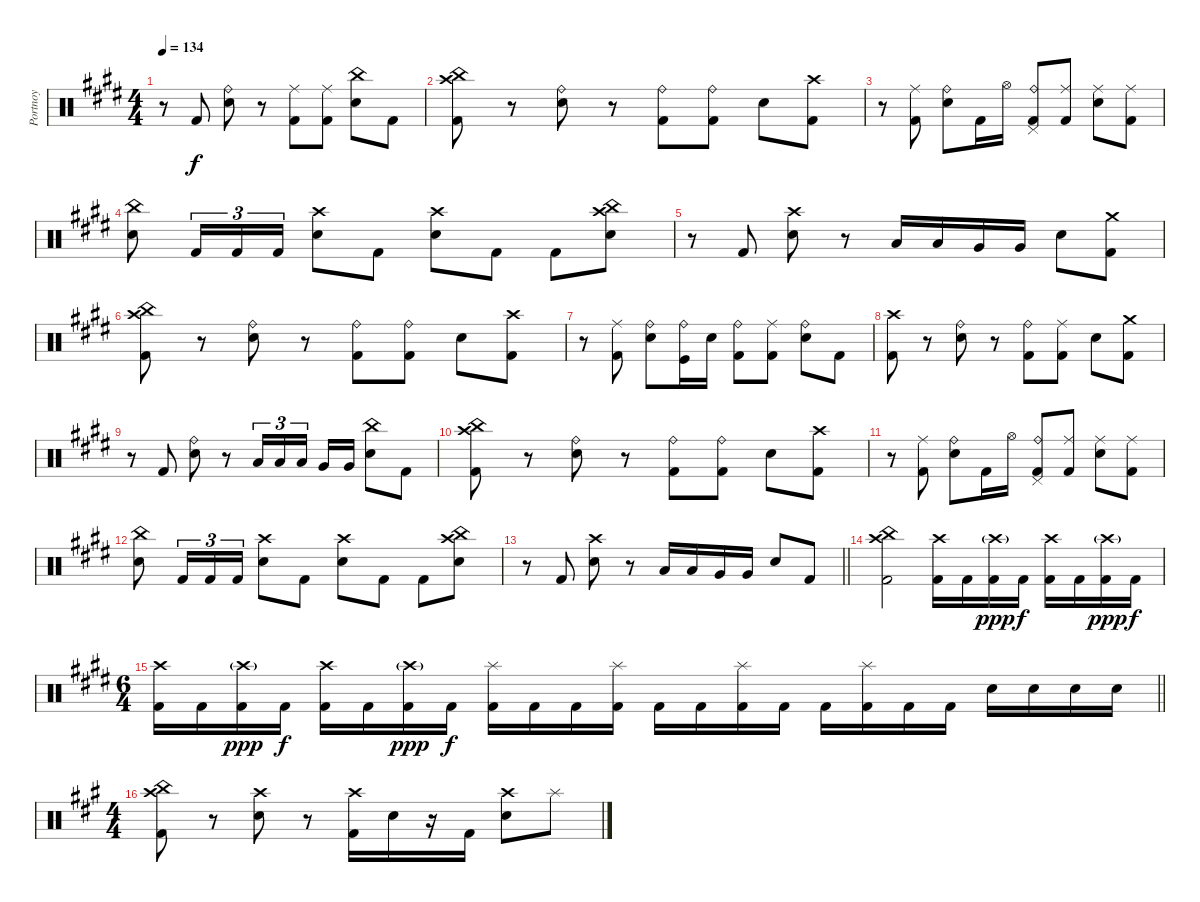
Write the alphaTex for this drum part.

\track ("Portnoy" "Portnoy") {instrument percussion}
\staff {score}
\articulation defaults
\ts (4 4)
\tempo 134
\clef neutral
\ks c#minor
r.8{dy f} "Kick (hit) 2".8 ("Snare (hit) 2" "Ride (bell)").8 r.8 ("Kick (hit) 2" "Ride (middle)").8 ("Kick (hit) 2" "Ride (middle)").8 ("Snare (hit) 2" "China (hit)").8 "Kick (hit) 2".8 |
("Kick (hit) 2" "Crash high (hit)" "China (hit)").8 r.8 ("Snare (hit) 2" "Ride (bell)").8 r.8 ("Kick (hit) 2" "Ride (bell)").8 ("Kick (hit) 2" "Ride (bell)").8 "Snare (hit) 2".8 ("Kick (hit) 2" "Crash high (hit)").8 |
r.8 ("Kick (hit) 2" "Ride (middle)").8 ("Snare (hit) 2" "Ride (bell)").8 "Kick (hit) 2".16 "Hi-Hat (open)".16 ("Kick (hit) 2" "Ride (bell)" "Pedal Hi-Hat (hit)").8 ("Kick (hit) 2" "Ride (middle)").8 ("Snare (hit) 2" "Ride (middle)").8 ("Kick (hit) 2" "Ride (middle)").8 |
("Snare (hit) 2" "China (hit)").8 "Kick (hit) 2".16{tu (3 2)} "Kick (hit) 2".16{tu (3 2)} "Kick (hit) 2".16{tu (3 2)} ("Snare (hit) 2" "Crash high (hit)").8 "Kick (hit) 2".8 ("Snare (hit) 2" "Crash high (hit)").8 "Kick (hit) 2".8 "Kick (hit) 2".8 ("Snare (hit) 2" "Crash high (hit)" "China (hit)").8 |
r.8 "Kick (hit) 2".8 ("Snare (hit) 2" "Crash high (hit)").8 r.8 "Low Tom (hit)".16 "Low Tom (hit)".16 "Very Low Tom (hit)".16 "Very Low Tom (hit)".16 "Snare (hit) 2".8 ("Kick (hit) 2" "Crash medium (hit)").8 |
("Kick (hit) 2" "Crash high (hit)" "China (hit)").8 r.8 ("Snare (hit) 2" "Ride (bell)").8 r.8 ("Kick (hit) 2" "Ride (bell)").8 ("Kick (hit) 2" "Ride (bell)").8 "Snare (hit) 2".8 ("Kick (hit) 2" "Crash high (hit)").8 |
r.8 ("Kick (hit) 2" "Ride (middle)").8 ("Snare (hit) 2" "Ride (bell)").8 ("Kick (hit)" "Ride (bell)").16 "Electric Snare (hit)".16 ("Kick (hit) 2" "Ride (bell)").8 ("Kick (hit) 2" "Ride (middle)").8 ("Snare (hit) 2" "Ride (bell)").8 "Kick (hit) 2".8 |
("Kick (hit) 2" "Crash high (hit)").8 r.8 ("Snare (hit) 2" "Ride (bell)").8 r.8 ("Kick (hit) 2" "Ride (bell)").8 ("Kick (hit) 2" "Ride (middle)").8 "Snare (hit) 2".8 ("Kick (hit) 2" "Crash medium (hit)").8 |
r.8 "Kick (hit) 2".8 ("Snare (hit) 2" "Ride (bell)").8 r.8 "Low Tom (hit)".16{tu (3 2)} "Low Tom (hit)".16{tu (3 2)} "Low Tom (hit)".16{tu (3 2) beam splitsecondary} "Very Low Tom (hit)".16 "Very Low Tom (hit)".16 ("Snare (hit) 2" "China (hit)").8 "Kick (hit) 2".8 |
("Kick (hit) 2" "Crash high (hit)" "China (hit)").8 r.8 ("Snare (hit) 2" "Ride (bell)").8 r.8 ("Kick (hit) 2" "Ride (bell)").8 ("Kick (hit) 2" "Ride (bell)").8 "Snare (hit) 2".8 ("Kick (hit) 2" "Crash high (hit)").8 |
r.8 ("Kick (hit) 2" "Ride (middle)").8 ("Snare (hit) 2" "Ride (bell)").8 "Kick (hit) 2".16 "Hi-Hat (open)".16 ("Kick (hit) 2" "Ride (bell)" "Pedal Hi-Hat (hit)").8 ("Kick (hit) 2" "Ride (middle)").8 ("Snare (hit) 2" "Ride (middle)").8 ("Kick (hit) 2" "Ride (middle)").8 |
("Snare (hit) 2" "China (hit)").8 "Kick (hit) 2".16{tu (3 2)} "Kick (hit) 2".16{tu (3 2)} "Kick (hit) 2".16{tu (3 2)} ("Snare (hit) 2" "Crash high (hit)").8 "Kick (hit) 2".8 ("Snare (hit) 2" "Crash high (hit)").8 "Kick (hit) 2".8 "Kick (hit) 2".8 ("Snare (hit) 2" "Crash high (hit)" "China (hit)").8 |
\barLineRight lightlight
r.8 "Kick (hit) 2".8 ("Snare (hit) 2" "Crash high (hit)").8 r.8 "Low Tom (hit)".16 "Low Tom (hit)".16 "Very Low Tom (hit)".16 "Very Low Tom (hit)".16 "Snare (hit) 2".8 "Kick (hit) 2".8 |
("Crash high (hit)" "Kick (hit) 2" "China (hit)").2 ("Kick (hit) 2" "Crash high (hit)").16 "Kick (hit) 2".16 ("Kick (hit) 2" "Crash high (hit)"{g}).16{dy ppp} "Kick (hit) 2".16{dy f} ("Kick (hit) 2" "Crash high (hit)").16 "Kick (hit) 2".16 ("Kick (hit) 2" "Crash high (hit)"{g}).16{dy ppp} "Kick (hit) 2".16{dy f} |
\ts (6 4)
\barLineRight lightlight
("Kick (hit) 2" "Crash high (hit)").16 "Kick (hit) 2".16 ("Kick (hit) 2" "Crash high (hit)"{g}).16{dy ppp} "Kick (hit) 2".16{dy f} ("Kick (hit) 2" "Crash high (hit)").16 "Kick (hit) 2".16 ("Kick (hit) 2" "Crash high (hit)"{g}).16{dy ppp} "Kick (hit) 2".16{dy f} ("Kick (hit) 2" "Splash (hit)").16 "Kick (hit) 2".16 "Kick (hit) 2".16 ("Kick (hit) 2" "Splash (hit)").16 "Kick (hit) 2".16 "Kick (hit) 2".16 ("Kick (hit) 2" "Splash (hit)").16 "Kick (hit) 2".16 "Kick (hit) 2".16 ("Kick (hit) 2" "Splash (hit)").16 "Kick (hit) 2".16 "Kick (hit) 2".16 "Electric Snare (hit)".16 "Electric Snare (hit)".16 "Electric Snare (hit)".16 "Electric Snare (hit)".16 |
\ts (4 4)
\ks f#minor
("Kick (hit) 2" "Crash high (hit)" "China (hit)").8 r.8 ("Snare (hit) 2" "Crash high (hit)").8 r.8 ("Kick (hit) 2" "Crash high (hit)").16 "Snare (hit) 2".16 r.16 "Kick (hit) 2".16 ("Snare (hit) 2" "Crash high (hit)").8 "Splash (hit)".8
